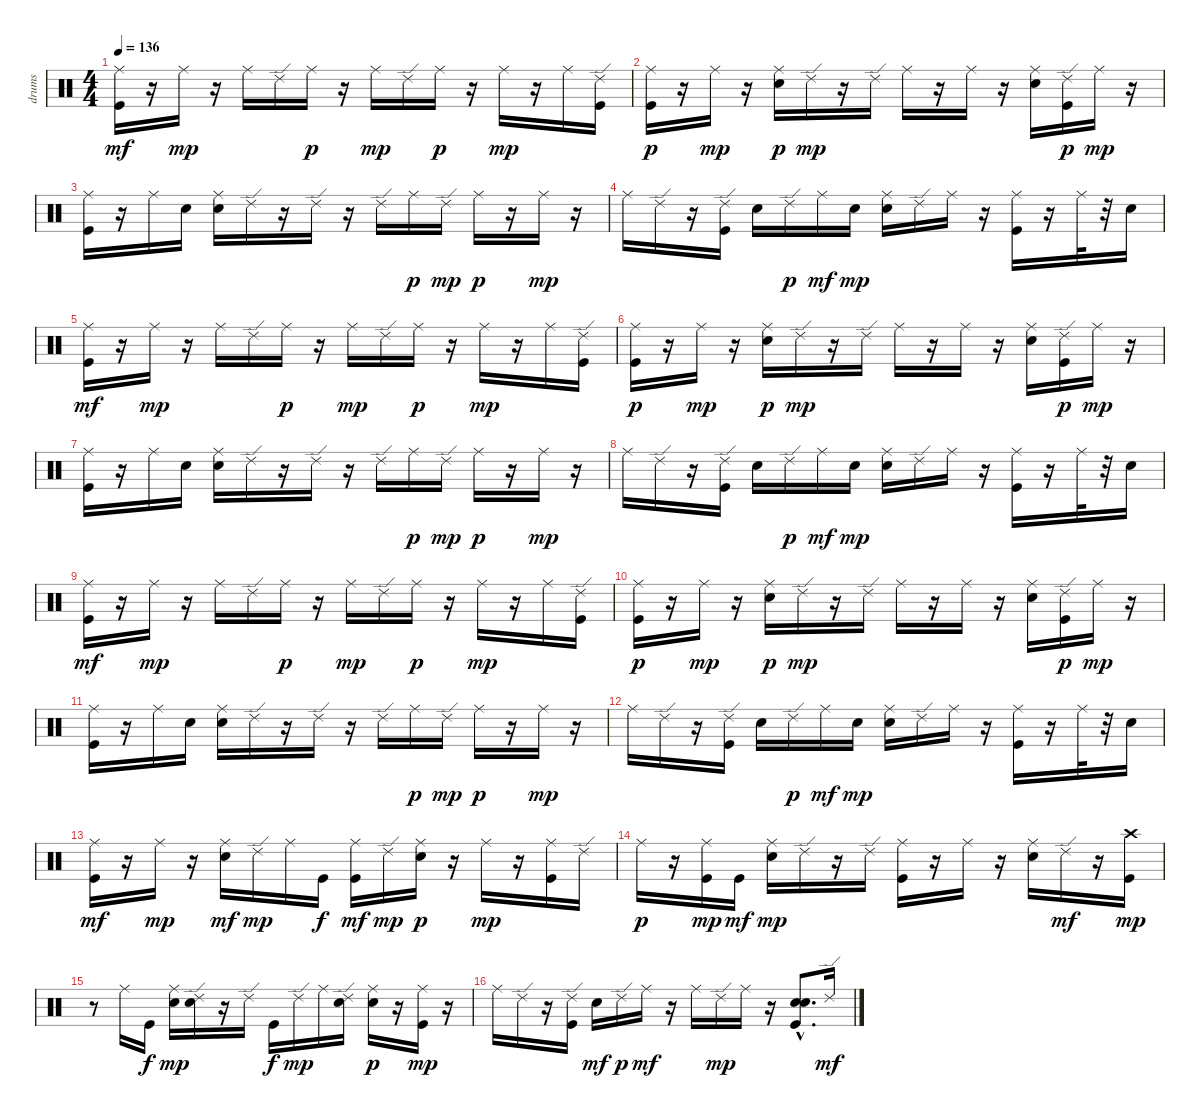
\track ("drums   " "drums   ") {instrument percussion}
\staff {score}
\articulation defaults
\ts (4 4)
\tempo 136
\clef neutral
\ks c
("Kick (hit)" "Ride (middle)").16{dy mf} r.16 "Ride (middle)".16{dy mp} r.16 "Ride (middle)".16 "Ride (edge) 2".16 "Ride (middle)".16{dy p} r.16 "Ride (middle)".16{dy mp} "Ride (edge) 2".16 "Ride (middle)".16{dy p} r.16 "Ride (middle)".16{dy mp} r.16 "Ride (middle)".16 ("Kick (hit)" "Ride (edge) 2").16 |
("Kick (hit)" "Ride (middle)").16{dy p} r.16 "Ride (middle)".16{dy mp} r.16 ("Electric Snare (hit)" "Ride (middle)").16{dy p} "Ride (edge) 2".16{dy mp} r.16 "Ride (edge) 2".16 "Ride (middle)".16 r.16 "Ride (middle)".16 r.16 ("Electric Snare (hit)" "Ride (middle)").16 ("Kick (hit)" "Ride (edge) 2").16{dy p} "Ride (middle)".16{dy mp} r.16 |
("Kick (hit)" "Ride (middle)").16 r.16 "Ride (middle)".16 "Electric Snare (hit)".16 ("Electric Snare (hit)" "Ride (middle)").16 "Ride (edge) 2".16 r.16 "Ride (edge) 2".16 r.16 "Ride (edge) 2".16 "Ride (middle)".16{dy p} "Ride (edge) 2".16{dy mp} "Ride (middle)".16{dy p} r.16 "Ride (middle)".16{dy mp} r.16 |
"Ride (middle)".16 "Ride (edge) 2".16 r.16 ("Kick (hit)" "Ride (edge) 2").16 "Electric Snare (hit)".16 "Ride (edge) 2".16{dy p} "Ride (middle)".16{dy mf} "Electric Snare (hit)".16{dy mp} ("Electric Snare (hit)" "Ride (middle)").16 "Ride (edge) 2".16 "Ride (middle)".16 r.16 ("Kick (hit)" "Ride (middle)").16 r.16 "Ride (middle)".32 r.32 "Electric Snare (hit)".16 |
("Kick (hit)" "Ride (middle)").16{dy mf} r.16 "Ride (middle)".16{dy mp} r.16 "Ride (middle)".16 "Ride (edge) 2".16 "Ride (middle)".16{dy p} r.16 "Ride (middle)".16{dy mp} "Ride (edge) 2".16 "Ride (middle)".16{dy p} r.16 "Ride (middle)".16{dy mp} r.16 "Ride (middle)".16 ("Kick (hit)" "Ride (edge) 2").16 |
("Kick (hit)" "Ride (middle)").16{dy p} r.16 "Ride (middle)".16{dy mp} r.16 ("Electric Snare (hit)" "Ride (middle)").16{dy p} "Ride (edge) 2".16{dy mp} r.16 "Ride (edge) 2".16 "Ride (middle)".16 r.16 "Ride (middle)".16 r.16 ("Electric Snare (hit)" "Ride (middle)").16 ("Kick (hit)" "Ride (edge) 2").16{dy p} "Ride (middle)".16{dy mp} r.16 |
("Kick (hit)" "Ride (middle)").16 r.16 "Ride (middle)".16 "Electric Snare (hit)".16 ("Electric Snare (hit)" "Ride (middle)").16 "Ride (edge) 2".16 r.16 "Ride (edge) 2".16 r.16 "Ride (edge) 2".16 "Ride (middle)".16{dy p} "Ride (edge) 2".16{dy mp} "Ride (middle)".16{dy p} r.16 "Ride (middle)".16{dy mp} r.16 |
"Ride (middle)".16 "Ride (edge) 2".16 r.16 ("Kick (hit)" "Ride (edge) 2").16 "Electric Snare (hit)".16 "Ride (edge) 2".16{dy p} "Ride (middle)".16{dy mf} "Electric Snare (hit)".16{dy mp} ("Electric Snare (hit)" "Ride (middle)").16 "Ride (edge) 2".16 "Ride (middle)".16 r.16 ("Kick (hit)" "Ride (middle)").16 r.16 "Ride (middle)".32 r.32 "Electric Snare (hit)".16 |
("Kick (hit)" "Ride (middle)").16{dy mf} r.16 "Ride (middle)".16{dy mp} r.16 "Ride (middle)".16 "Ride (edge) 2".16 "Ride (middle)".16{dy p} r.16 "Ride (middle)".16{dy mp} "Ride (edge) 2".16 "Ride (middle)".16{dy p} r.16 "Ride (middle)".16{dy mp} r.16 "Ride (middle)".16 ("Kick (hit)" "Ride (edge) 2").16 |
("Kick (hit)" "Ride (middle)").16{dy p} r.16 "Ride (middle)".16{dy mp} r.16 ("Electric Snare (hit)" "Ride (middle)").16{dy p} "Ride (edge) 2".16{dy mp} r.16 "Ride (edge) 2".16 "Ride (middle)".16 r.16 "Ride (middle)".16 r.16 ("Electric Snare (hit)" "Ride (middle)").16 ("Kick (hit)" "Ride (edge) 2").16{dy p} "Ride (middle)".16{dy mp} r.16 |
("Kick (hit)" "Ride (middle)").16 r.16 "Ride (middle)".16 "Electric Snare (hit)".16 ("Electric Snare (hit)" "Ride (middle)").16 "Ride (edge) 2".16 r.16 "Ride (edge) 2".16 r.16 "Ride (edge) 2".16 "Ride (middle)".16{dy p} "Ride (edge) 2".16{dy mp} "Ride (middle)".16{dy p} r.16 "Ride (middle)".16{dy mp} r.16 |
"Ride (middle)".16 "Ride (edge) 2".16 r.16 ("Kick (hit)" "Ride (edge) 2").16 "Electric Snare (hit)".16 "Ride (edge) 2".16{dy p} "Ride (middle)".16{dy mf} "Electric Snare (hit)".16{dy mp} ("Electric Snare (hit)" "Ride (middle)").16 "Ride (edge) 2".16 "Ride (middle)".16 r.16 ("Kick (hit)" "Ride (middle)").16 r.16 "Ride (middle)".32 r.32 "Electric Snare (hit)".16 |
("Kick (hit)" "Ride (middle)").16{dy mf} r.16 "Ride (middle)".16{dy mp} r.16 ("Electric Snare (hit)" "Ride (middle)").16{dy mf} "Ride (edge) 2".16{dy mp} "Ride (middle)".16 "Kick (hit)".16{dy f} ("Kick (hit)" "Ride (middle)").16{dy mf} "Ride (edge) 2".16{dy mp} ("Electric Snare (hit)" "Ride (middle)").16{dy p} r.16 "Ride (middle)".16{dy mp} r.16 ("Kick (hit)" "Ride (middle)").16 "Ride (edge) 2".16 |
"Ride (middle)".16{dy p} r.16 ("Kick (hit)" "Ride (middle)").16{dy mp} "Kick (hit)".16{dy mf} ("Electric Snare (hit)" "Ride (middle)").16{dy mp} "Ride (edge) 2".16 r.16 "Ride (edge) 2".16 ("Kick (hit)" "Ride (middle)").16 r.16 "Ride (middle)".16 r.16 ("Electric Snare (hit)" "Ride (middle)").16 "Ride (edge) 2".16{dy mf} r.16 ("Crash high (hit)" "Kick (hit)").16{dy mp} |
r.8 "Ride (middle)".16 "Kick (hit)".16{dy f} ("Electric Snare (hit)" "Ride (middle)").16{dy mp} ("Electric Snare (hit)" "Ride (edge) 2").16 r.16 "Ride (edge) 2".16 "Kick (hit)".16{dy f} "Ride (edge) 2".16{dy mp} "Ride (middle)".16 ("Electric Snare (hit)" "Ride (edge) 2").16 ("Electric Snare (hit)" "Ride (middle)").16{dy p} r.16 ("Kick (hit)" "Ride (middle)").16{dy mp} r.16 |
"Ride (middle)".16 "Ride (edge) 2".16 r.16 ("Kick (hit)" "Ride (edge) 2").16 "Electric Snare (hit)".16{dy mf} "Ride (edge) 2".16{dy p} "Ride (middle)".16{dy mf} r.16 "Ride (middle)".16 "Ride (edge) 2".16{dy mp} "Ride (middle)".16 r.16 ("Electric Snare (hit)"{hac} "Kick (hit)" "Electric Snare (hit)").8{d} "Ride (edge) 2".16{dy mf}
